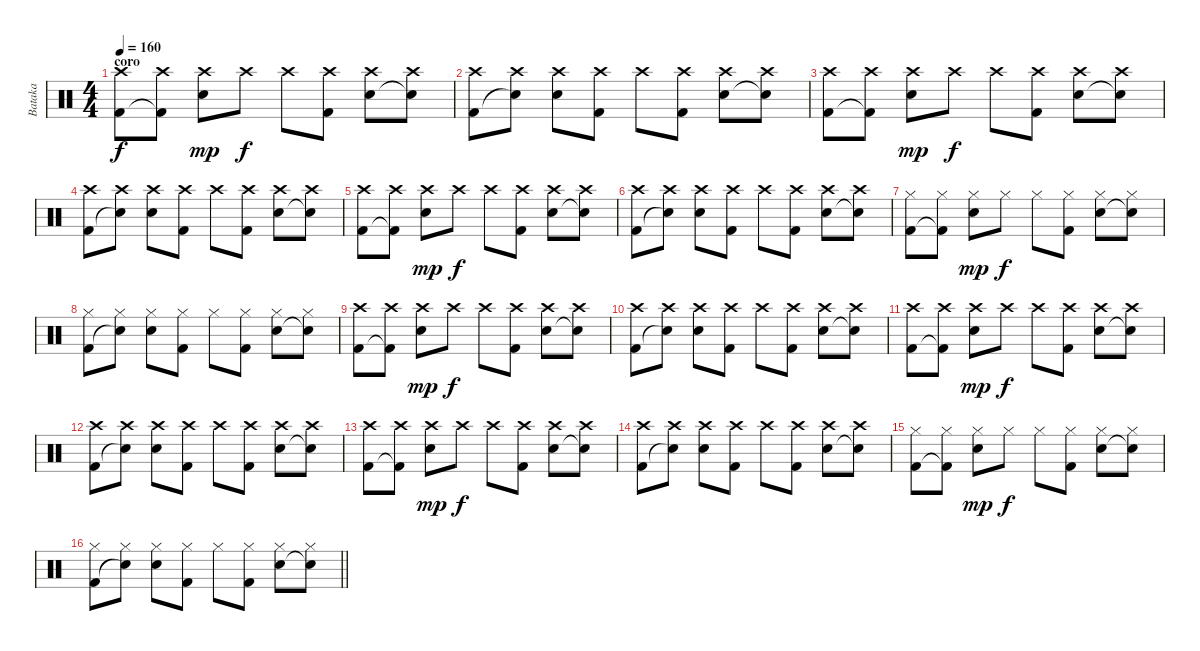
\track ("Bataka" "Bataka") {instrument percussion}
\staff {score}
\articulation defaults
\ts (4 4)
\section ("" "coro")
\tempo 160
\clef neutral
\ks c
("Crash high (hit)" "Kick (hit) 2").8{dy f} ("Crash high (hit)" "Kick (hit) 2"{t}).8 ("Crash high (hit)" "Electric Snare (hit)").8{dy mp} "Crash high (hit)".8{dy f} "Crash high (hit)".8 ("Crash high (hit)" "Kick (hit) 2").8 ("Crash high (hit)" "Electric Snare (hit)").8 ("Crash high (hit)" "Snare (hit)"{t}).8 |
("Crash high (hit)" "Kick (hit) 2").8 ("Crash high (hit)" "Snare (hit)"{t}).8 ("Crash high (hit)" "Electric Snare (hit)").8 ("Crash high (hit)" "Kick (hit) 2").8 "Crash high (hit)".8 ("Crash high (hit)" "Kick (hit) 2").8 ("Crash high (hit)" "Electric Snare (hit)").8 ("Crash high (hit)" "Snare (hit)"{t}).8 |
("Crash high (hit)" "Kick (hit) 2").8 ("Crash high (hit)" "Kick (hit) 2"{t}).8 ("Crash high (hit)" "Electric Snare (hit)").8{dy mp} "Crash high (hit)".8{dy f} "Crash high (hit)".8 ("Crash high (hit)" "Kick (hit) 2").8 ("Crash high (hit)" "Electric Snare (hit)").8 ("Crash high (hit)" "Snare (hit)"{t}).8 |
("Crash high (hit)" "Kick (hit) 2").8 ("Crash high (hit)" "Snare (hit)"{t}).8 ("Crash high (hit)" "Electric Snare (hit)").8 ("Crash high (hit)" "Kick (hit) 2").8 "Crash high (hit)".8 ("Crash high (hit)" "Kick (hit) 2").8 ("Crash high (hit)" "Electric Snare (hit)").8 ("Crash high (hit)" "Snare (hit)"{t}).8 |
("Crash high (hit)" "Kick (hit) 2").8 ("Crash high (hit)" "Kick (hit) 2"{t}).8 ("Crash high (hit)" "Electric Snare (hit)").8{dy mp} "Crash high (hit)".8{dy f} "Crash high (hit)".8 ("Crash high (hit)" "Kick (hit) 2").8 ("Crash high (hit)" "Electric Snare (hit)").8 ("Crash high (hit)" "Snare (hit)"{t}).8 |
("Crash high (hit)" "Kick (hit) 2").8 ("Crash high (hit)" "Snare (hit)"{t}).8 ("Crash high (hit)" "Electric Snare (hit)").8 ("Crash high (hit)" "Kick (hit) 2").8 "Crash high (hit)".8 ("Crash high (hit)" "Kick (hit) 2").8 ("Crash high (hit)" "Electric Snare (hit)").8 ("Crash high (hit)" "Snare (hit)"{t}).8 |
("Hi-Hat (closed)" "Kick (hit) 2").8 ("Hi-Hat (closed)" "Kick (hit) 2"{t}).8 ("Hi-Hat (closed)" "Electric Snare (hit)").8{dy mp} "Hi-Hat (closed)".8{dy f} "Hi-Hat (closed)".8 ("Hi-Hat (closed)" "Kick (hit) 2").8 ("Hi-Hat (closed)" "Electric Snare (hit)").8 ("Hi-Hat (closed)" "Snare (hit)"{t}).8 |
("Hi-Hat (closed)" "Kick (hit) 2").8 ("Hi-Hat (closed)" "Snare (hit)"{t}).8 ("Hi-Hat (closed)" "Electric Snare (hit)").8 ("Hi-Hat (closed)" "Kick (hit) 2").8 "Hi-Hat (closed)".8 ("Hi-Hat (closed)" "Kick (hit) 2").8 ("Hi-Hat (closed)" "Electric Snare (hit)").8 ("Hi-Hat (closed)" "Snare (hit)"{t}).8 |
("Crash high (hit)" "Kick (hit) 2").8 ("Crash high (hit)" "Kick (hit) 2"{t}).8 ("Crash high (hit)" "Electric Snare (hit)").8{dy mp} "Crash high (hit)".8{dy f} "Crash high (hit)".8 ("Crash high (hit)" "Kick (hit) 2").8 ("Crash high (hit)" "Electric Snare (hit)").8 ("Crash high (hit)" "Snare (hit)"{t}).8 |
("Crash high (hit)" "Kick (hit) 2").8 ("Crash high (hit)" "Snare (hit)"{t}).8 ("Crash high (hit)" "Electric Snare (hit)").8 ("Crash high (hit)" "Kick (hit) 2").8 "Crash high (hit)".8 ("Crash high (hit)" "Kick (hit) 2").8 ("Crash high (hit)" "Electric Snare (hit)").8 ("Crash high (hit)" "Snare (hit)"{t}).8 |
("Crash high (hit)" "Kick (hit) 2").8 ("Crash high (hit)" "Kick (hit) 2"{t}).8 ("Crash high (hit)" "Electric Snare (hit)").8{dy mp} "Crash high (hit)".8{dy f} "Crash high (hit)".8 ("Crash high (hit)" "Kick (hit) 2").8 ("Crash high (hit)" "Electric Snare (hit)").8 ("Crash high (hit)" "Snare (hit)"{t}).8 |
("Crash high (hit)" "Kick (hit) 2").8 ("Crash high (hit)" "Snare (hit)"{t}).8 ("Crash high (hit)" "Electric Snare (hit)").8 ("Crash high (hit)" "Kick (hit) 2").8 "Crash high (hit)".8 ("Crash high (hit)" "Kick (hit) 2").8 ("Crash high (hit)" "Electric Snare (hit)").8 ("Crash high (hit)" "Snare (hit)"{t}).8 |
("Crash high (hit)" "Kick (hit) 2").8 ("Crash high (hit)" "Kick (hit) 2"{t}).8 ("Crash high (hit)" "Electric Snare (hit)").8{dy mp} "Crash high (hit)".8{dy f} "Crash high (hit)".8 ("Crash high (hit)" "Kick (hit) 2").8 ("Crash high (hit)" "Electric Snare (hit)").8 ("Crash high (hit)" "Snare (hit)"{t}).8 |
("Crash high (hit)" "Kick (hit) 2").8 ("Crash high (hit)" "Snare (hit)"{t}).8 ("Crash high (hit)" "Electric Snare (hit)").8 ("Crash high (hit)" "Kick (hit) 2").8 "Crash high (hit)".8 ("Crash high (hit)" "Kick (hit) 2").8 ("Crash high (hit)" "Electric Snare (hit)").8 ("Crash high (hit)" "Snare (hit)"{t}).8 |
("Hi-Hat (closed)" "Kick (hit) 2").8 ("Hi-Hat (closed)" "Kick (hit) 2"{t}).8 ("Hi-Hat (closed)" "Electric Snare (hit)").8{dy mp} "Hi-Hat (closed)".8{dy f} "Hi-Hat (closed)".8 ("Hi-Hat (closed)" "Kick (hit) 2").8 ("Hi-Hat (closed)" "Electric Snare (hit)").8 ("Hi-Hat (closed)" "Snare (hit)"{t}).8 |
\barLineRight lightlight
("Hi-Hat (closed)" "Kick (hit) 2").8 ("Hi-Hat (closed)" "Snare (hit)"{t}).8 ("Hi-Hat (closed)" "Electric Snare (hit)").8 ("Hi-Hat (closed)" "Kick (hit) 2").8 "Hi-Hat (closed)".8 ("Hi-Hat (closed)" "Kick (hit) 2").8 ("Hi-Hat (closed)" "Electric Snare (hit)").8 ("Hi-Hat (closed)" "Snare (hit)"{t}).8
